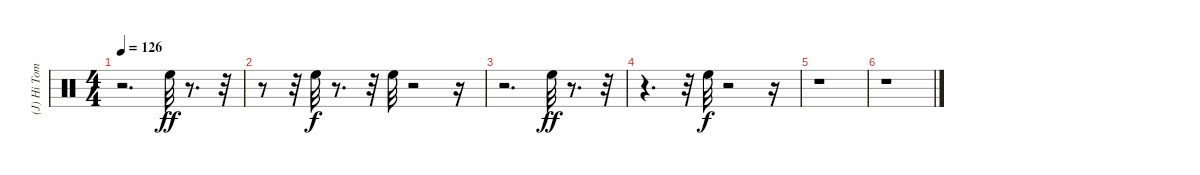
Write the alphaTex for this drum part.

\track ("(J) Hi Tom" "(J) Hi Tom") {instrument percussion}
\staff {score}
\articulation defaults
\ts (4 4)
\tempo 126
\clef neutral
\ks c
r.2{d dy f} "High Floor Tom (hit)".32{dy ff} r.8{d} r.32 |
r.8 r.32 "High Floor Tom (hit)".32{dy f} r.8{d} r.32 "High Floor Tom (hit)".32 r.2 r.16 |
r.2{d} "High Floor Tom (hit)".32{dy ff} r.8{d} r.32 |
r.4{d} r.32 "High Floor Tom (hit)".32{dy f} r.2 r.16 |
r.1 |
r.1
